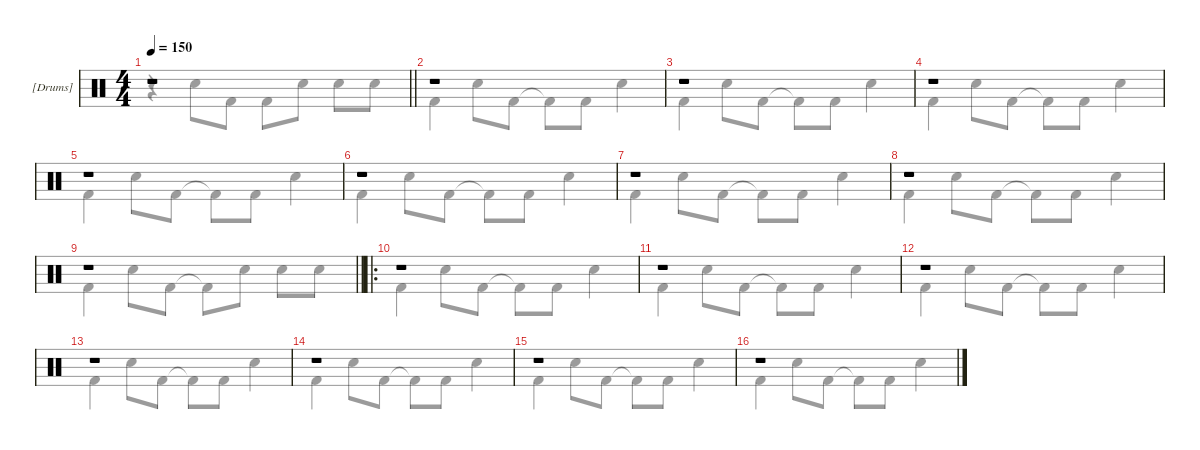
\hideDynamics
\bracketExtendMode groupsimilarinstruments
\firstSystemTrackNameMode fullname
\firstSystemTrackNameOrientation horizontal
\otherSystemsTrackNameOrientation horizontal
\track ("[Drums]" "Drums") {defaultSystemsLayout 4 instrument percussion}
\staff {score}
\articulation defaults
\voice
\ts (4 4)
\beaming (8 2 2 2 2)
\tempo 150
\clef neutral
\barLineRight lightlight
\ks c
r.1{dy mf beam Up} |
r.1{beam Up} |
r.1{beam Up} |
r.1{beam Up} |
r.1{beam Up} |
r.1{beam Up} |
r.1{beam Up} |
r.1{beam Up} |
\barLineRight lightlight
r.1{beam Up} |
\ro
r.1{beam Up} |
r.1{beam Up} |
r.1{beam Up} |
r.1{beam Up} |
r.1{beam Up} |
r.1{beam Up} |
r.1{beam Up}
\voice
\clef neutral
\ottava regular
\simile none
\barLineRight lightlight
\ks c
r.4{dy f beam Down} "Snare (hit) 2".8{beam Down} "Kick (hit) 2".8{beam Down} "Kick (hit) 2".8{beam Down} "Snare (hit) 2".8{beam Down} "Snare (hit) 2".8{beam Down} "Snare (hit) 2".8{beam Down} |
"Kick (hit) 2".4{beam Down} "Snare (hit) 2".8{beam Down} "Kick (hit) 2".8{beam Down} "Kick (hit) 2"{t}.8{beam Down} "Kick (hit) 2".8{beam Down} "Snare (hit) 2".4{beam Down} |
"Kick (hit) 2".4{beam Down} "Snare (hit) 2".8{beam Down} "Kick (hit) 2".8{beam Down} "Kick (hit) 2"{t}.8{beam Down} "Kick (hit) 2".8{beam Down} "Snare (hit) 2".4{beam Down} |
"Kick (hit) 2".4{beam Down} "Snare (hit) 2".8{beam Down} "Kick (hit) 2".8{beam Down} "Kick (hit) 2"{t}.8{beam Down} "Kick (hit) 2".8{beam Down} "Snare (hit) 2".4{beam Down} |
"Kick (hit) 2".4{beam Down} "Snare (hit) 2".8{beam Down} "Kick (hit) 2".8{beam Down} "Kick (hit) 2"{t}.8{beam Down} "Kick (hit) 2".8{beam Down} "Snare (hit) 2".4{beam Down} |
"Kick (hit) 2".4{beam Down} "Snare (hit) 2".8{beam Down} "Kick (hit) 2".8{beam Down} "Kick (hit) 2"{t}.8{beam Down} "Kick (hit) 2".8{beam Down} "Snare (hit) 2".4{beam Down} |
"Kick (hit) 2".4{beam Down} "Snare (hit) 2".8{beam Down} "Kick (hit) 2".8{beam Down} "Kick (hit) 2"{t}.8{beam Down} "Kick (hit) 2".8{beam Down} "Snare (hit) 2".4{beam Down} |
"Kick (hit) 2".4{beam Down} "Snare (hit) 2".8{beam Down} "Kick (hit) 2".8{beam Down} "Kick (hit) 2"{t}.8{beam Down} "Kick (hit) 2".8{beam Down} "Snare (hit) 2".4{beam Down} |
\barLineRight lightlight "Kick (hit) 2".4{beam Down} "Snare (hit) 2".8{beam Down} "Kick (hit) 2".8{beam Down} "Kick (hit) 2"{t}.8{beam Down} "Snare (hit) 2".8{beam Down} "Snare (hit) 2".8{beam Down} "Snare (hit) 2".8{beam Down}
|
"Kick (hit) 2".4{beam Down} "Snare (hit) 2".8{beam Down} "Kick (hit) 2".8{beam Down} "Kick (hit) 2"{t}.8{beam Down} "Kick (hit) 2".8{beam Down} "Snare (hit) 2".4{beam Down} |
"Kick (hit) 2".4{beam Down} "Snare (hit) 2".8{beam Down} "Kick (hit) 2".8{beam Down} "Kick (hit) 2"{t}.8{beam Down} "Kick (hit) 2".8{beam Down} "Snare (hit) 2".4{beam Down} |
"Kick (hit) 2".4{beam Down} "Snare (hit) 2".8{beam Down} "Kick (hit) 2".8{beam Down} "Kick (hit) 2"{t}.8{beam Down} "Kick (hit) 2".8{beam Down} "Snare (hit) 2".4{beam Down} |
"Kick (hit) 2".4{beam Down} "Snare (hit) 2".8{beam Down} "Kick (hit) 2".8{beam Down} "Kick (hit) 2"{t}.8{beam Down} "Kick (hit) 2".8{beam Down} "Snare (hit) 2".4{beam Down} |
"Kick (hit) 2".4{beam Down} "Snare (hit) 2".8{beam Down} "Kick (hit) 2".8{beam Down} "Kick (hit) 2"{t}.8{beam Down} "Kick (hit) 2".8{beam Down} "Snare (hit) 2".4{beam Down} |
"Kick (hit) 2".4{beam Down} "Snare (hit) 2".8{beam Down} "Kick (hit) 2".8{beam Down} "Kick (hit) 2"{t}.8{beam Down} "Kick (hit) 2".8{beam Down} "Snare (hit) 2".4{beam Down} |
"Kick (hit) 2".4{beam Down} "Snare (hit) 2".8{beam Down} "Kick (hit) 2".8{beam Down} "Kick (hit) 2"{t}.8{beam Down} "Kick (hit) 2".8{beam Down} "Snare (hit) 2".4{beam Down}
